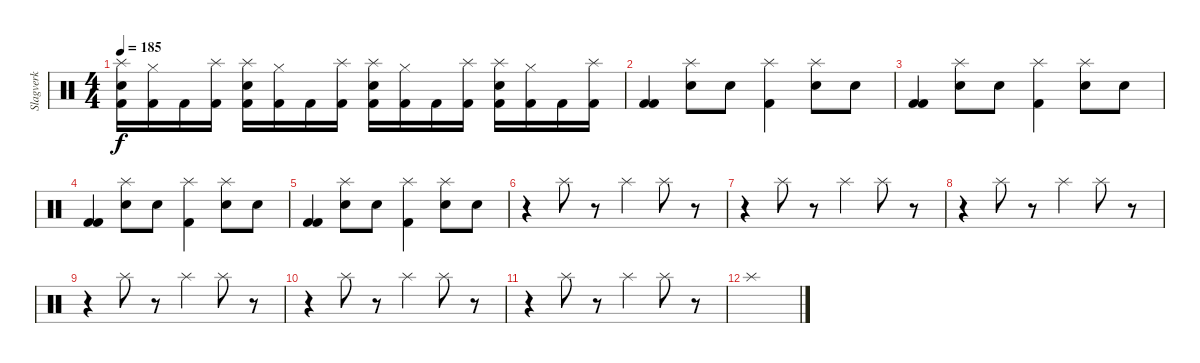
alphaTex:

\track ("Slagverk" "Slagverk") {instrument percussion}
\staff {score}
\articulation defaults
\ts (4 4)
\tempo 185
\clef neutral
\ks c
("Kick (hit) 2" "Electric Snare (hit)" "Splash (hit)").16{dy f} ("Kick (hit) 2" "Hi-Hat (closed)").16 "Kick (hit) 2".16 ("Kick (hit) 2" "Splash (hit)").16 ("Kick (hit) 2" "Electric Snare (hit)" "Splash (hit)").16 ("Kick (hit) 2" "Hi-Hat (closed)").16 "Kick (hit) 2".16 ("Kick (hit) 2" "Splash (hit)").16 ("Kick (hit) 2" "Electric Snare (hit)" "Splash (hit)").16 ("Kick (hit) 2" "Hi-Hat (closed)").16 "Kick (hit) 2".16 ("Kick (hit) 2" "Splash (hit)").16 ("Kick (hit) 2" "Electric Snare (hit)" "Splash (hit)").16 ("Kick (hit) 2" "Hi-Hat (closed)").16 "Kick (hit) 2".16 ("Kick (hit) 2" "Splash (hit)").16 |
("Kick (hit) 2" "Kick (hit) 2").4 ("Splash (hit)" "Electric Snare (hit)").8 "Electric Snare (hit)".8 ("Splash (hit)" "Kick (hit) 2").4 ("Splash (hit)" "Electric Snare (hit)").8 "Electric Snare (hit)".8 |
("Kick (hit) 2" "Kick (hit) 2").4 ("Splash (hit)" "Electric Snare (hit)").8 "Electric Snare (hit)".8 ("Splash (hit)" "Kick (hit) 2").4 ("Splash (hit)" "Electric Snare (hit)").8 "Electric Snare (hit)".8 |
("Kick (hit) 2" "Kick (hit) 2").4 ("Splash (hit)" "Electric Snare (hit)").8 "Electric Snare (hit)".8 ("Splash (hit)" "Kick (hit) 2").4 ("Splash (hit)" "Electric Snare (hit)").8 "Electric Snare (hit)".8 |
("Kick (hit) 2" "Kick (hit) 2").4 ("Splash (hit)" "Electric Snare (hit)").8 "Electric Snare (hit)".8 ("Splash (hit)" "Kick (hit) 2").4 ("Splash (hit)" "Electric Snare (hit)").8 "Electric Snare (hit)".8 |
r.4 "Splash (hit)".8 r.8 "Splash (hit)".4 "Splash (hit)".8 r.8 |
r.4 "Splash (hit)".8 r.8 "Splash (hit)".4 "Splash (hit)".8 r.8 |
r.4 "Splash (hit)".8 r.8 "Splash (hit)".4 "Splash (hit)".8 r.8 |
r.4 "Splash (hit)".8 r.8 "Splash (hit)".4 "Splash (hit)".8 r.8 |
r.4 "Splash (hit)".8 r.8 "Splash (hit)".4 "Splash (hit)".8 r.8 |
r.4 "Splash (hit)".8 r.8 "Splash (hit)".4 "Splash (hit)".8 r.8 |
"Splash (hit)".1
